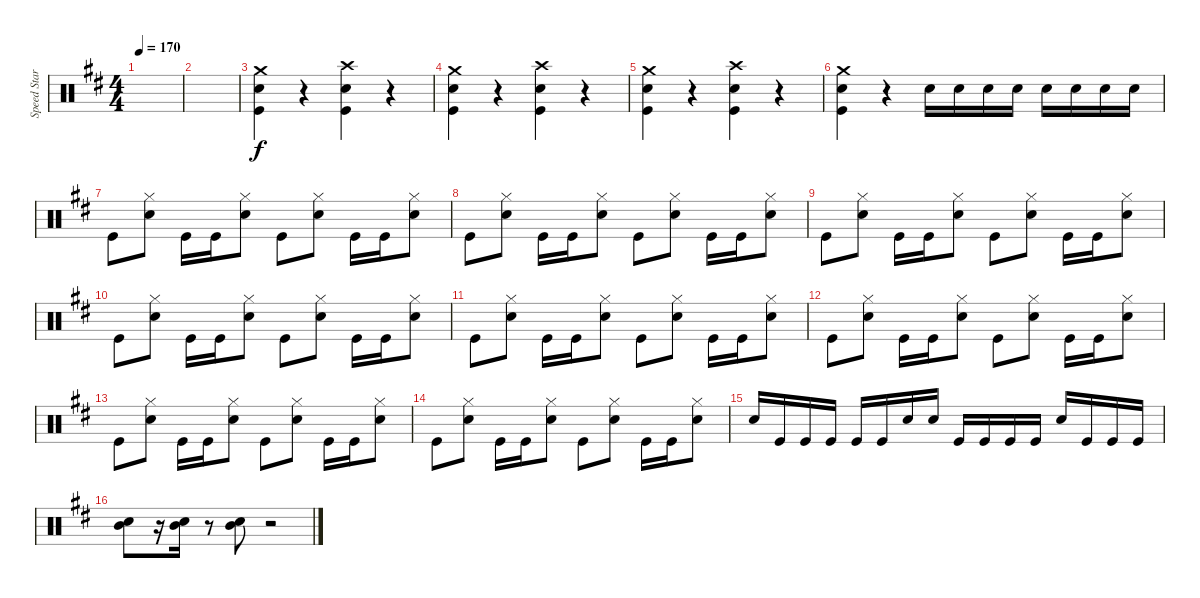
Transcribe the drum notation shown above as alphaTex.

\track ("Speed Star" "Speed Star") {instrument percussion}
\staff {score}
\articulation defaults
\ts (4 4)
\tempo 170
\clef neutral
\ks d
|
|
("Snare (hit) 2" "Kick (hit)" "Crash medium (hit)").4 r.4 ("Snare (hit) 2" "Kick (hit)" "Crash high (hit)").4 r.4 |
("Snare (hit) 2" "Kick (hit)" "Crash medium (hit)").4 r.4 ("Snare (hit) 2" "Kick (hit)" "Crash high (hit)").4 r.4 |
("Snare (hit) 2" "Kick (hit)" "Crash medium (hit)").4 r.4 ("Snare (hit) 2" "Kick (hit)" "Crash high (hit)").4 r.4 |
("Snare (hit) 2" "Kick (hit)" "Crash medium (hit)").4 r.4 "Snare (hit) 2".16 "Snare (hit) 2".16 "Snare (hit) 2".16 "Snare (hit) 2".16 "Snare (hit) 2".16 "Snare (hit) 2".16 "Snare (hit) 2".16 "Snare (hit) 2".16 |
"Kick (hit)".8 ("Snare (hit) 2" "Hi-Hat (closed)").8 "Kick (hit)".16 "Kick (hit)".16 ("Snare (hit) 2" "Hi-Hat (closed)").8 "Kick (hit)".8 ("Snare (hit) 2" "Hi-Hat (closed)").8 "Kick (hit)".16 "Kick (hit)".16 ("Snare (hit) 2" "Hi-Hat (closed)").8 |
"Kick (hit)".8 ("Snare (hit) 2" "Hi-Hat (closed)").8 "Kick (hit)".16 "Kick (hit)".16 ("Snare (hit) 2" "Hi-Hat (closed)").8 "Kick (hit)".8 ("Snare (hit) 2" "Hi-Hat (closed)").8 "Kick (hit)".16 "Kick (hit)".16 ("Snare (hit) 2" "Hi-Hat (closed)").8 |
"Kick (hit)".8 ("Snare (hit) 2" "Hi-Hat (closed)").8 "Kick (hit)".16 "Kick (hit)".16 ("Snare (hit) 2" "Hi-Hat (closed)").8 "Kick (hit)".8 ("Snare (hit) 2" "Hi-Hat (closed)").8 "Kick (hit)".16 "Kick (hit)".16 ("Snare (hit) 2" "Hi-Hat (closed)").8 |
"Kick (hit)".8 ("Snare (hit) 2" "Hi-Hat (closed)").8 "Kick (hit)".16 "Kick (hit)".16 ("Snare (hit) 2" "Hi-Hat (closed)").8 "Kick (hit)".8 ("Snare (hit) 2" "Hi-Hat (closed)").8 "Kick (hit)".16 "Kick (hit)".16 ("Snare (hit) 2" "Hi-Hat (closed)").8 |
"Kick (hit)".8 ("Snare (hit) 2" "Hi-Hat (closed)").8 "Kick (hit)".16 "Kick (hit)".16 ("Snare (hit) 2" "Hi-Hat (closed)").8 "Kick (hit)".8 ("Snare (hit) 2" "Hi-Hat (closed)").8 "Kick (hit)".16 "Kick (hit)".16 ("Snare (hit) 2" "Hi-Hat (closed)").8 |
"Kick (hit)".8 ("Snare (hit) 2" "Hi-Hat (closed)").8 "Kick (hit)".16 "Kick (hit)".16 ("Snare (hit) 2" "Hi-Hat (closed)").8 "Kick (hit)".8 ("Snare (hit) 2" "Hi-Hat (closed)").8 "Kick (hit)".16 "Kick (hit)".16 ("Snare (hit) 2" "Hi-Hat (closed)").8 |
"Kick (hit)".8 ("Snare (hit) 2" "Hi-Hat (closed)").8 "Kick (hit)".16 "Kick (hit)".16 ("Snare (hit) 2" "Hi-Hat (closed)").8 "Kick (hit)".8 ("Snare (hit) 2" "Hi-Hat (closed)").8 "Kick (hit)".16 "Kick (hit)".16 ("Snare (hit) 2" "Hi-Hat (closed)").8 |
"Kick (hit)".8 ("Snare (hit) 2" "Hi-Hat (closed)").8 "Kick (hit)".16 "Kick (hit)".16 ("Snare (hit) 2" "Hi-Hat (closed)").8 "Kick (hit)".8 ("Snare (hit) 2" "Hi-Hat (closed)").8 "Kick (hit)".16 "Kick (hit)".16 ("Snare (hit) 2" "Hi-Hat (closed)").8 |
"Snare (hit) 2".16 "Kick (hit)".16 "Kick (hit)".16 "Kick (hit)".16 "Kick (hit)".16 "Kick (hit)".16 "Snare (hit) 2".16 "Snare (hit) 2".16 "Kick (hit)".16 "Kick (hit)".16 "Kick (hit)".16 "Kick (hit)".16 "Snare (hit) 2".16 "Kick (hit)".16 "Kick (hit)".16 "Kick (hit)".16 |
("Snare (hit) 2" "Mid Tom (hit)").8 r.16 ("Snare (hit) 2" "Mid Tom (hit)").16 r.8 ("Snare (hit) 2" "Mid Tom (hit)").8 r.2
